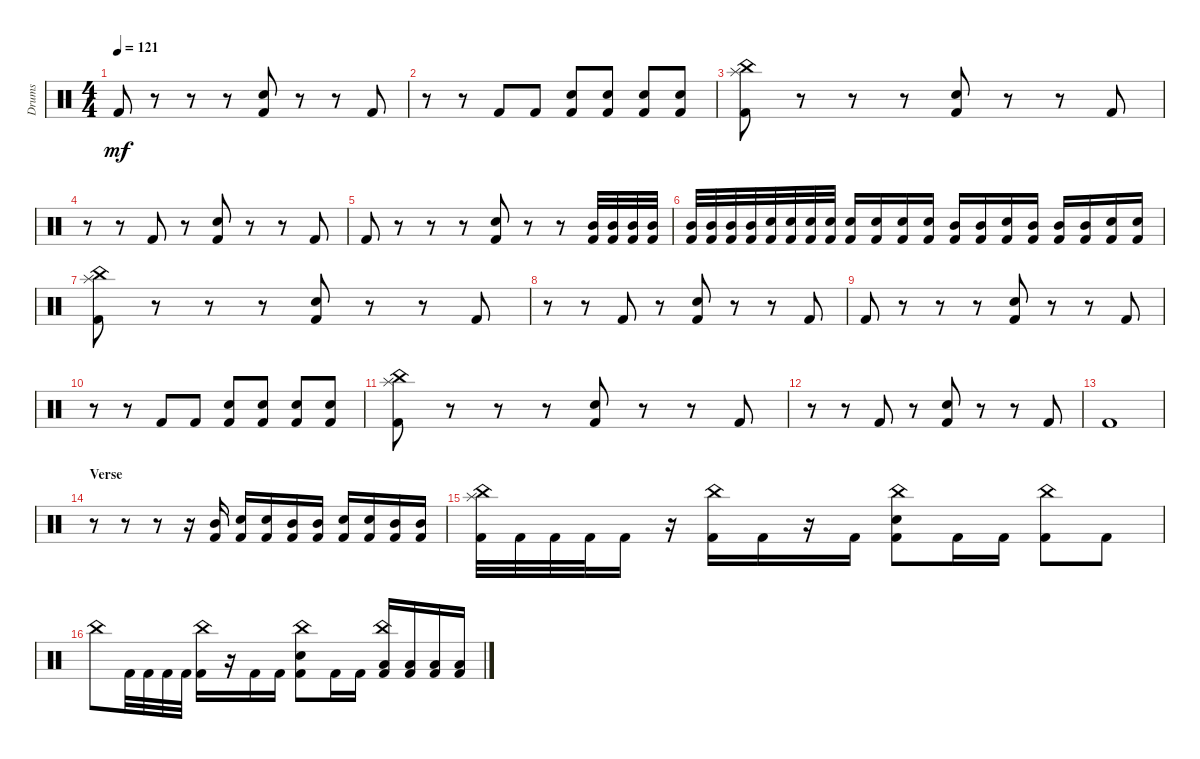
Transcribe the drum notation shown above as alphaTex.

\track ("Drums" "Drums") {instrument percussion}
\staff {score}
\articulation defaults
\ts (4 4)
\tempo 121
\clef neutral
\ks c "Kick (hit) 2".8{dy mf}
r.8 r.8 r.8 ("Kick (hit) 2" "Snare (hit) 2").8 r.8 r.8 "Kick (hit) 2".8 |
r.8 r.8 "Kick (hit) 2".8 "Kick (hit) 2".8 ("Kick (hit) 2" "Snare (hit) 2").8 ("Kick (hit) 2" "Snare (hit) 2").8 ("Kick (hit) 2" "Snare (hit) 2").8 ("Kick (hit) 2" "Snare (hit) 2").8 |
("Kick (hit) 2" "Splash (hit)" "China (hit)").8 r.8 r.8 r.8 ("Kick (hit) 2" "Snare (hit) 2").8 r.8 r.8 "Kick (hit) 2".8 |
r.8 r.8 "Kick (hit) 2".8 r.8 ("Kick (hit) 2" "Snare (hit) 2").8 r.8 r.8 "Kick (hit) 2".8 |
"Kick (hit) 2".8 r.8 r.8 r.8 ("Kick (hit) 2" "Snare (hit) 2").8 r.8 r.8 ("Kick (hit) 2" "Mid Tom (hit)").32 ("Kick (hit) 2" "Mid Tom (hit)").32 ("Kick (hit) 2" "Mid Tom (hit)").32 ("Kick (hit) 2" "Mid Tom (hit)").32 |
("Kick (hit) 2" "Mid Tom (hit)").32 ("Kick (hit) 2" "Mid Tom (hit)").32 ("Kick (hit) 2" "Mid Tom (hit)").32 ("Kick (hit) 2" "Mid Tom (hit)").32 ("Kick (hit) 2" "Snare (hit) 2").32 ("Kick (hit) 2" "Snare (hit) 2").32 ("Kick (hit) 2" "Snare (hit) 2").32 ("Kick (hit) 2" "Snare (hit) 2").32 ("Kick (hit) 2" "Snare (hit) 2").16 ("Kick (hit) 2" "Snare (hit) 2").16 ("Kick (hit) 2" "Snare (hit) 2").16 ("Kick (hit) 2" "Snare (hit) 2").16 ("Kick (hit) 2" "Mid Tom (hit)").16 ("Kick (hit) 2" "Mid Tom (hit)").16 ("Kick (hit) 2" "Snare (hit) 2").16 ("Kick (hit) 2" "Mid Tom (hit)").16 ("Kick (hit) 2" "Mid Tom (hit)").16 ("Kick (hit) 2" "Mid Tom (hit)").16 ("Kick (hit) 2" "Snare (hit) 2").16 ("Kick (hit) 2" "Snare (hit) 2").16 |
("Kick (hit) 2" "Splash (hit)" "China (hit)").8 r.8 r.8 r.8 ("Kick (hit) 2" "Snare (hit) 2").8 r.8 r.8 "Kick (hit) 2".8 |
r.8 r.8 "Kick (hit) 2".8 r.8 ("Kick (hit) 2" "Snare (hit) 2").8 r.8 r.8 "Kick (hit) 2".8 |
"Kick (hit) 2".8 r.8 r.8 r.8 ("Kick (hit) 2" "Snare (hit) 2").8 r.8 r.8 "Kick (hit) 2".8 |
r.8 r.8 "Kick (hit) 2".8 "Kick (hit) 2".8 ("Kick (hit) 2" "Snare (hit) 2").8 ("Kick (hit) 2" "Snare (hit) 2").8 ("Kick (hit) 2" "Snare (hit) 2").8 ("Kick (hit) 2" "Snare (hit) 2").8 |
("Kick (hit) 2" "Splash (hit)" "China (hit)").8 r.8 r.8 r.8 ("Kick (hit) 2" "Snare (hit) 2").8 r.8 r.8 "Kick (hit) 2".8 |
r.8 r.8 "Kick (hit) 2".8 r.8 ("Kick (hit) 2" "Snare (hit) 2").8 r.8 r.8 "Kick (hit) 2".8 |
"Kick (hit) 2".1 |
\section ("" "Verse")
r.8 r.8 r.8 r.16 ("Kick (hit) 2" "Mid Tom (hit)").16 ("Kick (hit) 2" "Snare (hit) 2").16 ("Kick (hit) 2" "Snare (hit) 2").16 ("Kick (hit) 2" "Mid Tom (hit)").16 ("Kick (hit) 2" "Mid Tom (hit)").16 ("Kick (hit) 2" "Snare (hit) 2").16 ("Kick (hit) 2" "Snare (hit) 2").16 ("Kick (hit) 2" "Mid Tom (hit)").16 ("Kick (hit) 2" "Mid Tom (hit)").16 |
("Kick (hit) 2" "China (hit)" "Splash (hit)").32 "Kick (hit) 2".32 "Kick (hit) 2".32 "Kick (hit) 2".32 "Kick (hit) 2".16 r.16 ("Kick (hit) 2" "China (hit)").16 "Kick (hit) 2".16 r.16 "Kick (hit) 2".16 ("Snare (hit) 2" "Kick (hit) 2" "China (hit)").8 "Kick (hit) 2".16 "Kick (hit) 2".16 ("Kick (hit) 2" "China (hit)").8 "Kick (hit) 2".8 |
"China (hit)".8 "Kick (hit) 2".32 "Kick (hit) 2".32 "Kick (hit) 2".32 "Kick (hit) 2".32 ("Kick (hit) 2" "China (hit)").16 r.16 "Kick (hit) 2".16 "Kick (hit) 2".16 ("Snare (hit) 2" "Kick (hit) 2" "China (hit)").8 "Kick (hit) 2".16 "Kick (hit) 2".16 ("Kick (hit) 2" "Low Tom (hit)" "China (hit)").16 ("Kick (hit) 2" "Low Tom (hit)").16 ("Kick (hit) 2" "Low Tom (hit)").16 ("Kick (hit) 2" "Low Tom (hit)").16
